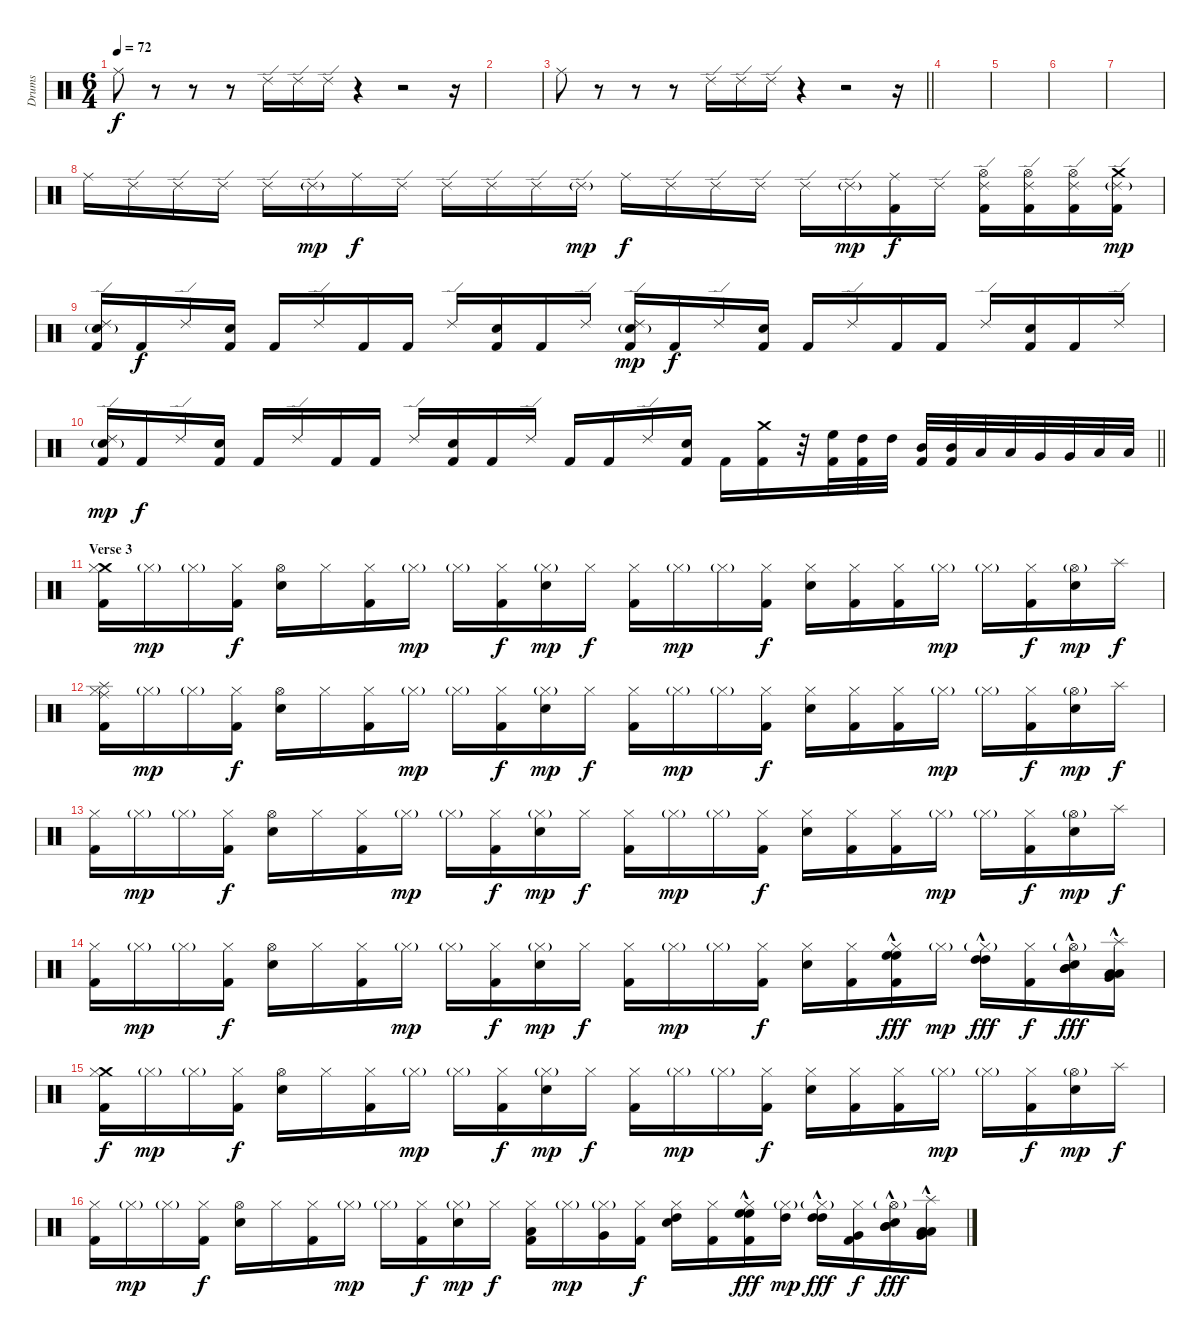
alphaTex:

\track ("Drums" "Drums") {instrument percussion}
\staff {score}
\articulation defaults
\ts (6 4)
\tempo 72
\clef neutral
\ks c "Ride (middle)".8{dy f}
r.8 r.8 r.8 "Ride (edge) 2".16 "Ride (edge) 2".16 "Ride (edge) 2".16 r.4 r.2 r.16 |
|
\barLineRight lightlight "Ride (middle)".8
r.8 r.8 r.8 "Ride (edge) 2".16 "Ride (edge) 2".16 "Ride (edge) 2".16 r.4 r.2 r.16 |
\section ("" "")
|
|
|
|
"Ride (middle)".16 "Ride (edge) 2".16 "Ride (edge) 2".16 "Ride (edge) 2".16 "Ride (edge) 2".16 "Ride (edge) 2"{g}.16{dy mp} "Ride (middle)".16{dy f} "Ride (edge) 2".16 "Ride (edge) 2".16 "Ride (edge) 2".16 "Ride (edge) 2".16 "Ride (edge) 2"{g}.16{dy mp} "Ride (middle)".16{dy f} "Ride (edge) 2".16 "Ride (edge) 2".16 "Ride (edge) 2".16 "Ride (edge) 2".16 "Ride (edge) 2"{g}.16{dy mp} ("Ride (middle)" "Kick (hit) 2").16{dy f} "Ride (edge) 2".16 ("Hi-Hat (open)" "Ride (edge) 2" "Kick (hit) 2").16 ("Hi-Hat (open)" "Ride (edge) 2" "Kick (hit) 2").16 ("Hi-Hat (open)" "Ride (edge) 2" "Kick (hit) 2").16 ("Crash medium (hit)" "Ride (edge) 2"{g} "Kick (hit) 2").16{dy mp} |
("Ride (edge) 2" "Electric Snare (hit)"{g} "Kick (hit) 2").16 "Kick (hit) 2".16{dy f} "Ride (edge) 2".16 ("Electric Snare (hit)" "Kick (hit) 2").16 "Kick (hit) 2".16 "Ride (edge) 2".16 "Kick (hit) 2".16 "Kick (hit) 2".16 "Ride (edge) 2".16 ("Electric Snare (hit)" "Kick (hit) 2").16 "Kick (hit) 2".16 "Ride (edge) 2".16 ("Ride (edge) 2" "Electric Snare (hit)"{g} "Kick (hit) 2").16{dy mp} "Kick (hit) 2".16{dy f} "Ride (edge) 2".16 ("Electric Snare (hit)" "Kick (hit) 2").16 "Kick (hit) 2".16 "Ride (edge) 2".16 "Kick (hit) 2".16 "Kick (hit) 2".16 "Ride (edge) 2".16 ("Electric Snare (hit)" "Kick (hit) 2").16 "Kick (hit) 2".16 "Ride (edge) 2".16 |
\barLineRight lightlight
("Ride (edge) 2" "Electric Snare (hit)"{g} "Kick (hit) 2").16{dy mp} "Kick (hit) 2".16{dy f} "Ride (edge) 2".16 ("Electric Snare (hit)" "Kick (hit) 2").16 "Kick (hit) 2".16 "Ride (edge) 2".16 "Kick (hit) 2".16 "Kick (hit) 2".16 "Ride (edge) 2".16 ("Electric Snare (hit)" "Kick (hit) 2").16 "Kick (hit) 2".16 "Ride (edge) 2".16 "Kick (hit) 2".16 "Kick (hit) 2".16 "Ride (edge) 2".16 ("Electric Snare (hit)" "Kick (hit) 2").16 "Kick (hit) 2".16 ("Crash medium (hit)" "Kick (hit) 2").16 r.32 ("High Floor Tom (hit)" "Kick (hit) 2").32 ("High Tom (hit)" "Kick (hit) 2").32 "High Tom (hit)".32 ("Mid Tom (hit)" "Kick (hit) 2").32 ("Mid Tom (hit)" "Kick (hit) 2").32 "Low Tom (hit)".32 "Low Tom (hit)".32 "Very Low Tom (hit)".32 "Very Low Tom (hit)".32 "Low Floor Tom (hit)".32 "Low Floor Tom (hit)".32 |
\section ("" "Verse 3")
("Crash medium (hit)" "Hi-Hat (closed)" "Kick (hit) 2").16 "Hi-Hat (closed)"{g}.16{dy mp} "Hi-Hat (closed)"{g}.16 ("Hi-Hat (closed)" "Kick (hit) 2").16{dy f} ("Hi-Hat (open)" "Electric Snare (hit)").16 "Hi-Hat (closed)".16 ("Hi-Hat (closed)" "Kick (hit) 2").16 "Hi-Hat (closed)"{g}.16{dy mp} "Hi-Hat (closed)"{g}.16 ("Hi-Hat (closed)" "Kick (hit) 2").16{dy f} ("Hi-Hat (closed)"{g} "Electric Snare (hit)").16{dy mp} "Hi-Hat (closed)".16{dy f} ("Hi-Hat (closed)" "Kick (hit) 2").16 "Hi-Hat (closed)"{g}.16{dy mp} "Hi-Hat (closed)"{g}.16 ("Hi-Hat (closed)" "Kick (hit) 2").16{dy f} ("Hi-Hat (closed)" "Electric Snare (hit)").16 ("Hi-Hat (closed)" "Kick (hit) 2").16 ("Hi-Hat (closed)" "Kick (hit) 2").16 "Hi-Hat (closed)"{g}.16{dy mp} "Hi-Hat (closed)"{g}.16 ("Hi-Hat (closed)" "Kick (hit) 2").16{dy f} ("Hi-Hat (open)"{g} "Electric Snare (hit)").16{dy mp} "Splash (hit)".16{dy f} |
("Ride (middle)" "Hi-Hat (closed)" "Splash (hit)" "Kick (hit) 2").16 "Hi-Hat (closed)"{g}.16{dy mp} "Hi-Hat (closed)"{g}.16 ("Hi-Hat (closed)" "Kick (hit) 2").16{dy f} ("Hi-Hat (open)" "Electric Snare (hit)").16 "Hi-Hat (closed)".16 ("Hi-Hat (closed)" "Kick (hit) 2").16 "Hi-Hat (closed)"{g}.16{dy mp} "Hi-Hat (closed)"{g}.16 ("Hi-Hat (closed)" "Kick (hit) 2").16{dy f} ("Hi-Hat (closed)"{g} "Electric Snare (hit)").16{dy mp} "Hi-Hat (closed)".16{dy f} ("Hi-Hat (closed)" "Kick (hit) 2").16 "Hi-Hat (closed)"{g}.16{dy mp} "Hi-Hat (closed)"{g}.16 ("Hi-Hat (closed)" "Kick (hit) 2").16{dy f} ("Hi-Hat (closed)" "Electric Snare (hit)").16 ("Hi-Hat (closed)" "Kick (hit) 2").16 ("Hi-Hat (closed)" "Kick (hit) 2").16 "Hi-Hat (closed)"{g}.16{dy mp} "Hi-Hat (closed)"{g}.16 ("Hi-Hat (closed)" "Kick (hit) 2").16{dy f} ("Hi-Hat (open)"{g} "Electric Snare (hit)").16{dy mp} "Splash (hit)".16{dy f} |
("Hi-Hat (closed)" "Kick (hit) 2").16 "Hi-Hat (closed)"{g}.16{dy mp} "Hi-Hat (closed)"{g}.16 ("Hi-Hat (closed)" "Kick (hit) 2").16{dy f} ("Hi-Hat (open)" "Electric Snare (hit)").16 "Hi-Hat (closed)".16 ("Hi-Hat (closed)" "Kick (hit) 2").16 "Hi-Hat (closed)"{g}.16{dy mp} "Hi-Hat (closed)"{g}.16 ("Hi-Hat (closed)" "Kick (hit) 2").16{dy f} ("Hi-Hat (closed)"{g} "Electric Snare (hit)").16{dy mp} "Hi-Hat (closed)".16{dy f} ("Hi-Hat (closed)" "Kick (hit) 2").16 "Hi-Hat (closed)"{g}.16{dy mp} "Hi-Hat (closed)"{g}.16 ("Hi-Hat (closed)" "Kick (hit) 2").16{dy f} ("Hi-Hat (closed)" "Electric Snare (hit)").16 ("Hi-Hat (closed)" "Kick (hit) 2").16 ("Hi-Hat (closed)" "Kick (hit) 2").16 "Hi-Hat (closed)"{g}.16{dy mp} "Hi-Hat (closed)"{g}.16 ("Hi-Hat (closed)" "Kick (hit) 2").16{dy f} ("Hi-Hat (open)"{g} "Electric Snare (hit)").16{dy mp} "Splash (hit)".16{dy f} |
("Hi-Hat (closed)" "Kick (hit) 2").16 "Hi-Hat (closed)"{g}.16{dy mp} "Hi-Hat (closed)"{g}.16 ("Hi-Hat (closed)" "Kick (hit) 2").16{dy f} ("Hi-Hat (open)" "Electric Snare (hit)").16 "Hi-Hat (closed)".16 ("Hi-Hat (closed)" "Kick (hit) 2").16 "Hi-Hat (closed)"{g}.16{dy mp} "Hi-Hat (closed)"{g}.16 ("Hi-Hat (closed)" "Kick (hit) 2").16{dy f} ("Hi-Hat (closed)"{g} "Electric Snare (hit)").16{dy mp} "Hi-Hat (closed)".16{dy f} ("Hi-Hat (closed)" "Kick (hit) 2").16 "Hi-Hat (closed)"{g}.16{dy mp} "Hi-Hat (closed)"{g}.16 ("Hi-Hat (closed)" "Kick (hit) 2").16{dy f} ("Hi-Hat (closed)" "Electric Snare (hit)").16 ("Hi-Hat (closed)" "Kick (hit) 2").16 ("High Floor Tom (hit)"{hac} "Hi-Hat (closed)" "High Floor Tom (hit)"{hac} "Kick (hit) 2").16{dy fff} "Hi-Hat (closed)"{g}.16{dy mp} ("High Tom (hit)"{hac} "Hi-Hat (closed)"{g} "High Tom (hit)"{hac}).16{dy fff} ("Hi-Hat (closed)" "Kick (hit) 2").16{dy f} ("Mid Tom (hit)"{hac} "Hi-Hat (open)"{g} "Electric Snare (hit)" "Mid Tom (hit)"{hac}).16{dy fff} ("Low Floor Tom (hit)"{hac} "Splash (hit)" "Very Low Tom (hit)"{hac} "Low Floor Tom (hit)"{hac}).16 |
("Crash medium (hit)" "Hi-Hat (closed)" "Kick (hit) 2").16{dy f} "Hi-Hat (closed)"{g}.16{dy mp} "Hi-Hat (closed)"{g}.16 ("Hi-Hat (closed)" "Kick (hit) 2").16{dy f} ("Hi-Hat (open)" "Electric Snare (hit)").16 "Hi-Hat (closed)".16 ("Hi-Hat (closed)" "Kick (hit) 2").16 "Hi-Hat (closed)"{g}.16{dy mp} "Hi-Hat (closed)"{g}.16 ("Hi-Hat (closed)" "Kick (hit) 2").16{dy f} ("Hi-Hat (closed)"{g} "Electric Snare (hit)").16{dy mp} "Hi-Hat (closed)".16{dy f} ("Hi-Hat (closed)" "Kick (hit) 2").16 "Hi-Hat (closed)"{g}.16{dy mp} "Hi-Hat (closed)"{g}.16 ("Hi-Hat (closed)" "Kick (hit) 2").16{dy f} ("Hi-Hat (closed)" "Electric Snare (hit)").16 ("Hi-Hat (closed)" "Kick (hit) 2").16 ("Hi-Hat (closed)" "Kick (hit) 2").16 "Hi-Hat (closed)"{g}.16{dy mp} "Hi-Hat (closed)"{g}.16 ("Hi-Hat (closed)" "Kick (hit) 2").16{dy f} ("Hi-Hat (open)"{g} "Electric Snare (hit)").16{dy mp} "Splash (hit)".16{dy f} |
("Hi-Hat (closed)" "Kick (hit) 2").16 "Hi-Hat (closed)"{g}.16{dy mp} "Hi-Hat (closed)"{g}.16 ("Hi-Hat (closed)" "Kick (hit) 2").16{dy f} ("Hi-Hat (open)" "Electric Snare (hit)").16 "Hi-Hat (closed)".16 ("Hi-Hat (closed)" "Kick (hit) 2").16 "Hi-Hat (closed)"{g}.16{dy mp} "Hi-Hat (closed)"{g}.16 ("Hi-Hat (closed)" "Kick (hit) 2").16{dy f} ("Hi-Hat (closed)"{g} "Electric Snare (hit)").16{dy mp} "Hi-Hat (closed)".16{dy f} ("Low Floor Tom (hit)" "Hi-Hat (closed)" "Kick (hit) 2").16 "Hi-Hat (closed)"{g}.16{dy mp} ("Very Low Tom (hit)" "Hi-Hat (closed)"{g}).16 ("Hi-Hat (closed)" "Kick (hit) 2").16{dy f} ("High Tom (hit)" "Hi-Hat (closed)" "Electric Snare (hit)").16 ("Hi-Hat (closed)" "Kick (hit) 2").16 ("High Floor Tom (hit)"{hac} "Hi-Hat (closed)" "High Floor Tom (hit)"{hac} "Kick (hit) 2").16{dy fff} ("High Tom (hit)" "Hi-Hat (closed)"{g}).16{dy mp} ("High Tom (hit)"{hac} "Hi-Hat (closed)"{g} "High Tom (hit)"{hac}).16{dy fff} ("Very Low Tom (hit)" "Hi-Hat (closed)" "Kick (hit) 2").16{dy f} ("Mid Tom (hit)"{hac} "Hi-Hat (open)"{g} "Electric Snare (hit)" "Mid Tom (hit)"{hac}).16{dy fff} ("Low Floor Tom (hit)"{hac} "Splash (hit)" "Very Low Tom (hit)"{hac} "Low Floor Tom (hit)"{hac}).16
